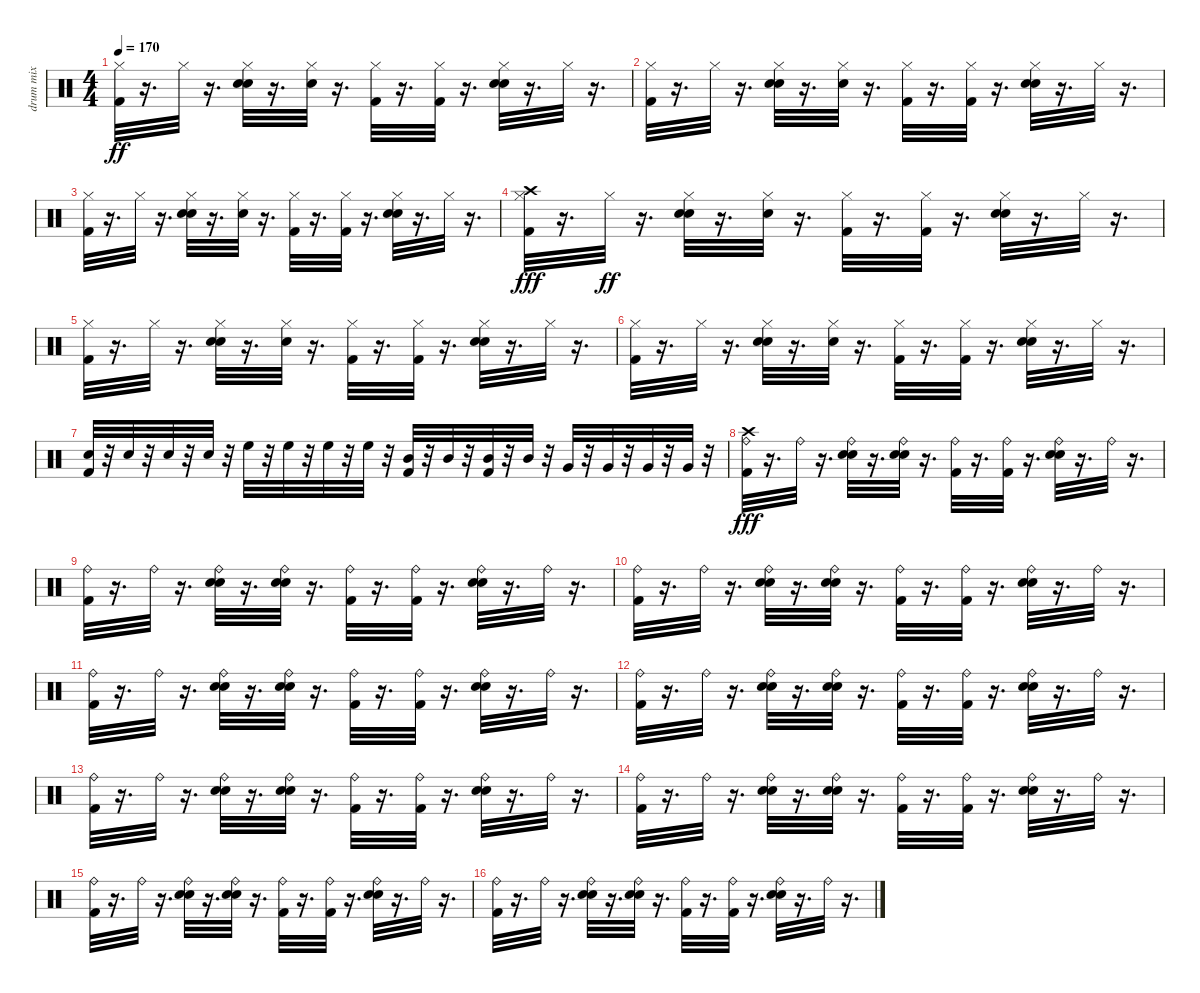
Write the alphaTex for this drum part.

\track ("drum mix" "drum mix") {instrument percussion}
\staff {score}
\articulation defaults
\ts (4 4)
\tempo 170
\clef neutral
\ks c
("Kick (hit) 2" "Hi-Hat (closed)").32{dy ff} r.16{d} "Hi-Hat (closed)".32 r.16{d} ("Snare (hit) 2" "Hand Clap (hit)" "Hi-Hat (closed)").32 r.16{d} ("Snare (hit) 2" "Hi-Hat (closed)").32 r.16{d} ("Kick (hit) 2" "Hi-Hat (closed)").32 r.16{d} ("Kick (hit) 2" "Hi-Hat (closed)").32 r.16{d} ("Snare (hit) 2" "Hand Clap (hit)" "Hi-Hat (closed)").32 r.16{d} "Hi-Hat (closed)".32 r.16{d} |
("Kick (hit) 2" "Hi-Hat (closed)").32 r.16{d} "Hi-Hat (closed)".32 r.16{d} ("Snare (hit) 2" "Hand Clap (hit)" "Hi-Hat (closed)").32 r.16{d} ("Snare (hit) 2" "Hi-Hat (closed)").32 r.16{d} ("Kick (hit) 2" "Hi-Hat (closed)").32 r.16{d} ("Kick (hit) 2" "Hi-Hat (closed)").32 r.16{d} ("Snare (hit) 2" "Hand Clap (hit)" "Hi-Hat (closed)").32 r.16{d} "Hi-Hat (closed)".32 r.16{d} |
("Kick (hit) 2" "Hi-Hat (closed)").32 r.16{d} "Hi-Hat (closed)".32 r.16{d} ("Snare (hit) 2" "Hand Clap (hit)" "Hi-Hat (closed)").32 r.16{d} ("Snare (hit) 2" "Hi-Hat (closed)").32 r.16{d} ("Kick (hit) 2" "Hi-Hat (closed)").32 r.16{d} ("Kick (hit) 2" "Hi-Hat (closed)").32 r.16{d} ("Snare (hit) 2" "Hand Clap (hit)" "Hi-Hat (closed)").32 r.16{d} "Hi-Hat (closed)".32 r.16{d} |
("Kick (hit) 2" "Hi-Hat (closed)" "Crash high (hit)").32{dy fff} r.16{d} "Hi-Hat (closed)".32{dy ff} r.16{d} ("Snare (hit) 2" "Hand Clap (hit)" "Hi-Hat (closed)").32 r.16{d} ("Snare (hit) 2" "Hi-Hat (closed)").32 r.16{d} ("Kick (hit) 2" "Hi-Hat (closed)").32 r.16{d} ("Kick (hit) 2" "Hi-Hat (closed)").32 r.16{d} ("Snare (hit) 2" "Hand Clap (hit)" "Hi-Hat (closed)").32 r.16{d} "Hi-Hat (closed)".32 r.16{d} |
("Kick (hit) 2" "Hi-Hat (closed)").32 r.16{d} "Hi-Hat (closed)".32 r.16{d} ("Snare (hit) 2" "Hand Clap (hit)" "Hi-Hat (closed)").32 r.16{d} ("Snare (hit) 2" "Hi-Hat (closed)").32 r.16{d} ("Kick (hit) 2" "Hi-Hat (closed)").32 r.16{d} ("Kick (hit) 2" "Hi-Hat (closed)").32 r.16{d} ("Snare (hit) 2" "Hand Clap (hit)" "Hi-Hat (closed)").32 r.16{d} "Hi-Hat (closed)".32 r.16{d} |
("Kick (hit) 2" "Hi-Hat (closed)").32 r.16{d} "Hi-Hat (closed)".32 r.16{d} ("Snare (hit) 2" "Hand Clap (hit)" "Hi-Hat (closed)").32 r.16{d} ("Snare (hit) 2" "Hi-Hat (closed)").32 r.16{d} ("Kick (hit) 2" "Hi-Hat (closed)").32 r.16{d} ("Kick (hit) 2" "Hi-Hat (closed)").32 r.16{d} ("Snare (hit) 2" "Hand Clap (hit)" "Hi-Hat (closed)").32 r.16{d} "Hi-Hat (closed)".32 r.16{d} |
("Kick (hit) 2" "Snare (hit) 2").32 r.32 "Snare (hit) 2".32 r.32 "Snare (hit) 2".32 r.32 "Snare (hit) 2".32 r.32 "High Floor Tom (hit)".32 r.32 "High Floor Tom (hit)".32 r.32 "High Floor Tom (hit)".32 r.32 "High Floor Tom (hit)".32 r.32 ("Kick (hit) 2" "Mid Tom (hit)").32 r.32 "Mid Tom (hit)".32 r.32 ("Kick (hit) 2" "Mid Tom (hit)").32 r.32 "Mid Tom (hit)".32 r.32 "Very Low Tom (hit)".32 r.32 "Very Low Tom (hit)".32 r.32 "Very Low Tom (hit)".32 r.32 "Very Low Tom (hit)".32 r.32 |
("Kick (hit) 2" "Crash high (hit)" "Ride (bell)").32{dy fff} r.16{d} "Ride (bell)".32 r.16{d} ("Snare (hit) 2" "Hand Clap (hit)" "Ride (bell)").32 r.16{d} ("Snare (hit) 2" "Hand Clap (hit)" "Ride (bell)").32 r.16{d} ("Kick (hit) 2" "Ride (bell)").32 r.16{d} ("Kick (hit) 2" "Ride (bell)").32 r.16{d} ("Snare (hit) 2" "Hand Clap (hit)" "Ride (bell)").32 r.16{d} "Ride (bell)".32 r.16{d} |
("Kick (hit) 2" "Ride (bell)").32 r.16{d} "Ride (bell)".32 r.16{d} ("Snare (hit) 2" "Hand Clap (hit)" "Ride (bell)").32 r.16{d} ("Snare (hit) 2" "Hand Clap (hit)" "Ride (bell)").32 r.16{d} ("Kick (hit) 2" "Ride (bell)").32 r.16{d} ("Kick (hit) 2" "Ride (bell)").32 r.16{d} ("Snare (hit) 2" "Hand Clap (hit)" "Ride (bell)").32 r.16{d} "Ride (bell)".32 r.16{d} |
("Kick (hit) 2" "Ride (bell)").32 r.16{d} "Ride (bell)".32 r.16{d} ("Snare (hit) 2" "Hand Clap (hit)" "Ride (bell)").32 r.16{d} ("Snare (hit) 2" "Hand Clap (hit)" "Ride (bell)").32 r.16{d} ("Kick (hit) 2" "Ride (bell)").32 r.16{d} ("Kick (hit) 2" "Ride (bell)").32 r.16{d} ("Snare (hit) 2" "Hand Clap (hit)" "Ride (bell)").32 r.16{d} "Ride (bell)".32 r.16{d} |
("Kick (hit) 2" "Ride (bell)").32 r.16{d} "Ride (bell)".32 r.16{d} ("Snare (hit) 2" "Hand Clap (hit)" "Ride (bell)").32 r.16{d} ("Snare (hit) 2" "Hand Clap (hit)" "Ride (bell)").32 r.16{d} ("Kick (hit) 2" "Ride (bell)").32 r.16{d} ("Kick (hit) 2" "Ride (bell)").32 r.16{d} ("Snare (hit) 2" "Hand Clap (hit)" "Ride (bell)").32 r.16{d} "Ride (bell)".32 r.16{d} |
("Kick (hit) 2" "Ride (bell)").32 r.16{d} "Ride (bell)".32 r.16{d} ("Snare (hit) 2" "Hand Clap (hit)" "Ride (bell)").32 r.16{d} ("Snare (hit) 2" "Hand Clap (hit)" "Ride (bell)").32 r.16{d} ("Kick (hit) 2" "Ride (bell)").32 r.16{d} ("Kick (hit) 2" "Ride (bell)").32 r.16{d} ("Snare (hit) 2" "Hand Clap (hit)" "Ride (bell)").32 r.16{d} "Ride (bell)".32 r.16{d} |
("Kick (hit) 2" "Ride (bell)").32 r.16{d} "Ride (bell)".32 r.16{d} ("Snare (hit) 2" "Hand Clap (hit)" "Ride (bell)").32 r.16{d} ("Snare (hit) 2" "Hand Clap (hit)" "Ride (bell)").32 r.16{d} ("Kick (hit) 2" "Ride (bell)").32 r.16{d} ("Kick (hit) 2" "Ride (bell)").32 r.16{d} ("Snare (hit) 2" "Hand Clap (hit)" "Ride (bell)").32 r.16{d} "Ride (bell)".32 r.16{d} |
("Kick (hit) 2" "Ride (bell)").32 r.16{d} "Ride (bell)".32 r.16{d} ("Snare (hit) 2" "Hand Clap (hit)" "Ride (bell)").32 r.16{d} ("Snare (hit) 2" "Hand Clap (hit)" "Ride (bell)").32 r.16{d} ("Kick (hit) 2" "Ride (bell)").32 r.16{d} ("Kick (hit) 2" "Ride (bell)").32 r.16{d} ("Snare (hit) 2" "Hand Clap (hit)" "Ride (bell)").32 r.16{d} "Ride (bell)".32 r.16{d} |
("Kick (hit) 2" "Ride (bell)").32 r.16{d} "Ride (bell)".32 r.16{d} ("Snare (hit) 2" "Hand Clap (hit)" "Ride (bell)").32 r.16{d} ("Snare (hit) 2" "Hand Clap (hit)" "Ride (bell)").32 r.16{d} ("Kick (hit) 2" "Ride (bell)").32 r.16{d} ("Kick (hit) 2" "Ride (bell)").32 r.16{d} ("Snare (hit) 2" "Hand Clap (hit)" "Ride (bell)").32 r.16{d} "Ride (bell)".32 r.16{d} |
("Kick (hit) 2" "Ride (bell)").32 r.16{d} "Ride (bell)".32 r.16{d} ("Snare (hit) 2" "Hand Clap (hit)" "Ride (bell)").32 r.16{d} ("Snare (hit) 2" "Hand Clap (hit)" "Ride (bell)").32 r.16{d} ("Kick (hit) 2" "Ride (bell)").32 r.16{d} ("Kick (hit) 2" "Ride (bell)").32 r.16{d} ("Snare (hit) 2" "Hand Clap (hit)" "Ride (bell)").32 r.16{d} "Ride (bell)".32 r.16{d}
